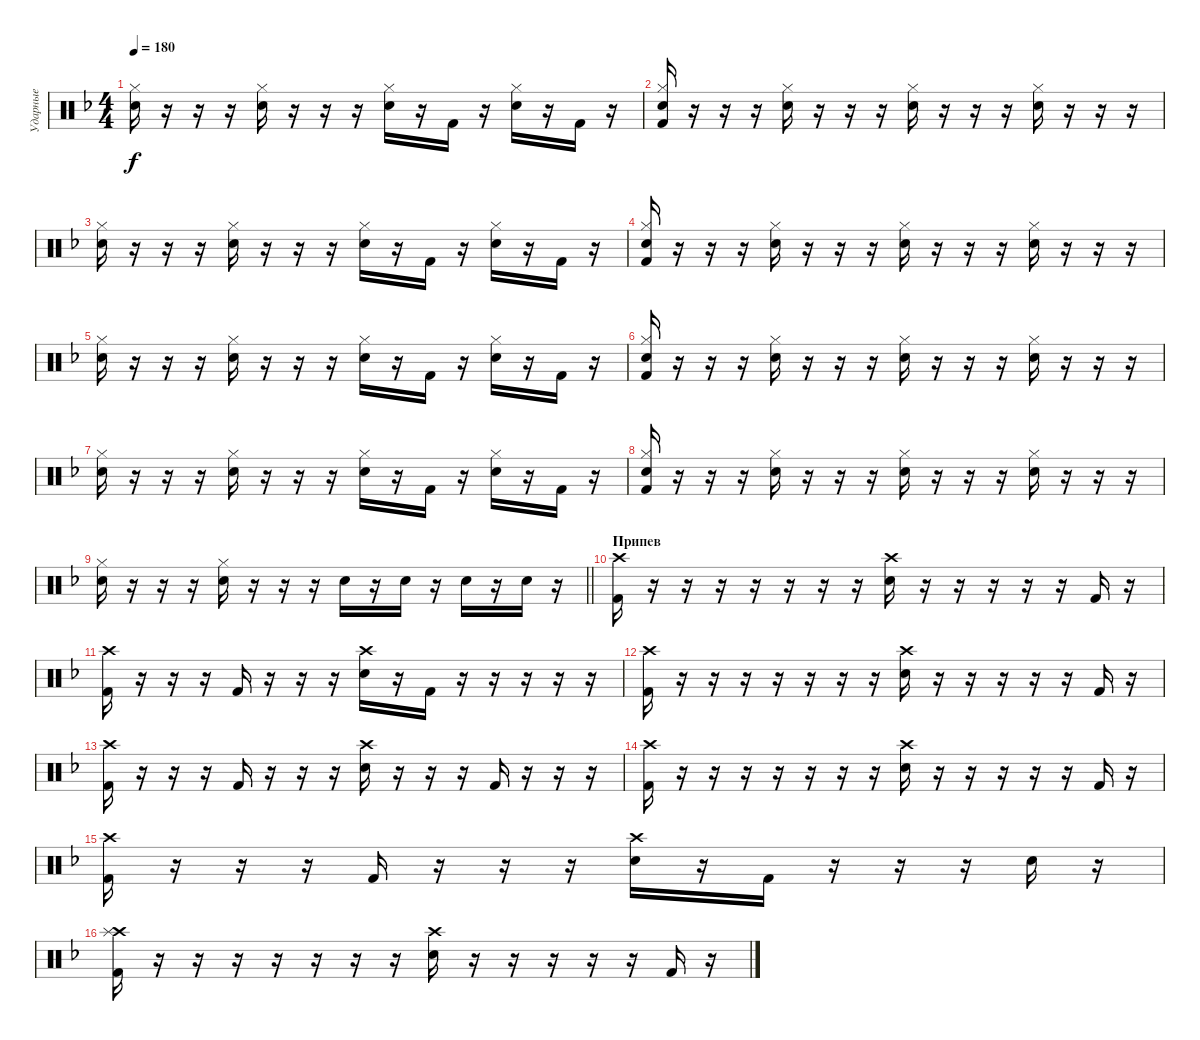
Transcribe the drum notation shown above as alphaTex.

\track ("Ударные" "Ударные") {instrument percussion}
\staff {score}
\articulation defaults
\ts (4 4)
\tempo 180
\clef neutral
\ks dminor
("Electric Snare (hit)" "Hi-Hat (closed)").16{dy f} r.16 r.16 r.16 ("Electric Snare (hit)" "Hi-Hat (closed)").16 r.16 r.16 r.16 ("Electric Snare (hit)" "Hi-Hat (closed)").16 r.16 "Kick (hit) 2".16 r.16 ("Electric Snare (hit)" "Hi-Hat (closed)").16 r.16 "Kick (hit) 2".16 r.16 |
("Electric Snare (hit)" "Kick (hit) 2" "Hi-Hat (closed)").16 r.16 r.16 r.16 ("Electric Snare (hit)" "Hi-Hat (closed)").16 r.16 r.16 r.16 ("Electric Snare (hit)" "Hi-Hat (closed)").16 r.16 r.16 r.16 ("Electric Snare (hit)" "Hi-Hat (closed)").16 r.16 r.16 r.16 |
("Electric Snare (hit)" "Hi-Hat (closed)").16 r.16 r.16 r.16 ("Electric Snare (hit)" "Hi-Hat (closed)").16 r.16 r.16 r.16 ("Electric Snare (hit)" "Hi-Hat (closed)").16 r.16 "Kick (hit) 2".16 r.16 ("Electric Snare (hit)" "Hi-Hat (closed)").16 r.16 "Kick (hit) 2".16 r.16 |
("Electric Snare (hit)" "Kick (hit) 2" "Hi-Hat (closed)").16 r.16 r.16 r.16 ("Electric Snare (hit)" "Hi-Hat (closed)").16 r.16 r.16 r.16 ("Electric Snare (hit)" "Hi-Hat (closed)").16 r.16 r.16 r.16 ("Electric Snare (hit)" "Hi-Hat (closed)").16 r.16 r.16 r.16 |
("Electric Snare (hit)" "Hi-Hat (closed)").16 r.16 r.16 r.16 ("Electric Snare (hit)" "Hi-Hat (closed)").16 r.16 r.16 r.16 ("Electric Snare (hit)" "Hi-Hat (closed)").16 r.16 "Kick (hit) 2".16 r.16 ("Electric Snare (hit)" "Hi-Hat (closed)").16 r.16 "Kick (hit) 2".16 r.16 |
("Electric Snare (hit)" "Kick (hit) 2" "Hi-Hat (closed)").16 r.16 r.16 r.16 ("Electric Snare (hit)" "Hi-Hat (closed)").16 r.16 r.16 r.16 ("Electric Snare (hit)" "Hi-Hat (closed)").16 r.16 r.16 r.16 ("Electric Snare (hit)" "Hi-Hat (closed)").16 r.16 r.16 r.16 |
("Electric Snare (hit)" "Hi-Hat (closed)").16 r.16 r.16 r.16 ("Electric Snare (hit)" "Hi-Hat (closed)").16 r.16 r.16 r.16 ("Electric Snare (hit)" "Hi-Hat (closed)").16 r.16 "Kick (hit) 2".16 r.16 ("Electric Snare (hit)" "Hi-Hat (closed)").16 r.16 "Kick (hit) 2".16 r.16 |
("Electric Snare (hit)" "Kick (hit) 2" "Hi-Hat (closed)").16 r.16 r.16 r.16 ("Electric Snare (hit)" "Hi-Hat (closed)").16 r.16 r.16 r.16 ("Electric Snare (hit)" "Hi-Hat (closed)").16 r.16 r.16 r.16 ("Electric Snare (hit)" "Hi-Hat (closed)").16 r.16 r.16 r.16 |
\barLineRight lightlight
("Electric Snare (hit)" "Hi-Hat (closed)").16 r.16 r.16 r.16 ("Electric Snare (hit)" "Hi-Hat (closed)").16 r.16 r.16 r.16 "Electric Snare (hit)".16 r.16 "Electric Snare (hit)".16 r.16 "Electric Snare (hit)".16 r.16 "Electric Snare (hit)".16 r.16 |
\section ("" "Припев")
("Crash high (hit)" "Kick (hit) 2").16 r.16 r.16 r.16 r.16 r.16 r.16 r.16 ("Crash high (hit)" "Electric Snare (hit)").16 r.16 r.16 r.16 r.16 r.16 "Kick (hit) 2".16 r.16 |
("Crash high (hit)" "Kick (hit) 2").16 r.16 r.16 r.16 "Kick (hit) 2".16 r.16 r.16 r.16 ("Crash high (hit)" "Electric Snare (hit)").16 r.16 "Kick (hit) 2".16 r.16 r.16 r.16 r.16 r.16 |
("Crash high (hit)" "Kick (hit) 2").16 r.16 r.16 r.16 r.16 r.16 r.16 r.16 ("Crash high (hit)" "Electric Snare (hit)").16 r.16 r.16 r.16 r.16 r.16 "Kick (hit) 2".16 r.16 |
("Crash high (hit)" "Kick (hit) 2").16 r.16 r.16 r.16 "Kick (hit) 2".16 r.16 r.16 r.16 ("Crash high (hit)" "Electric Snare (hit)").16 r.16 r.16 r.16 "Kick (hit) 2".16 r.16 r.16 r.16 |
("Crash high (hit)" "Kick (hit) 2").16 r.16 r.16 r.16 r.16 r.16 r.16 r.16 ("Crash high (hit)" "Electric Snare (hit)").16 r.16 r.16 r.16 r.16 r.16 "Kick (hit) 2".16 r.16 |
("Crash high (hit)" "Kick (hit) 2").16 r.16 r.16 r.16 "Kick (hit) 2".16 r.16 r.16 r.16 ("Crash high (hit)" "Electric Snare (hit)").16 r.16 "Kick (hit) 2".16 r.16 r.16 r.16 "Electric Snare (hit)".16 r.16 |
("Crash high (hit)" "Splash (hit)" "Kick (hit) 2").16 r.16 r.16 r.16 r.16 r.16 r.16 r.16 ("Crash high (hit)" "Electric Snare (hit)").16 r.16 r.16 r.16 r.16 r.16 "Kick (hit) 2".16 r.16
